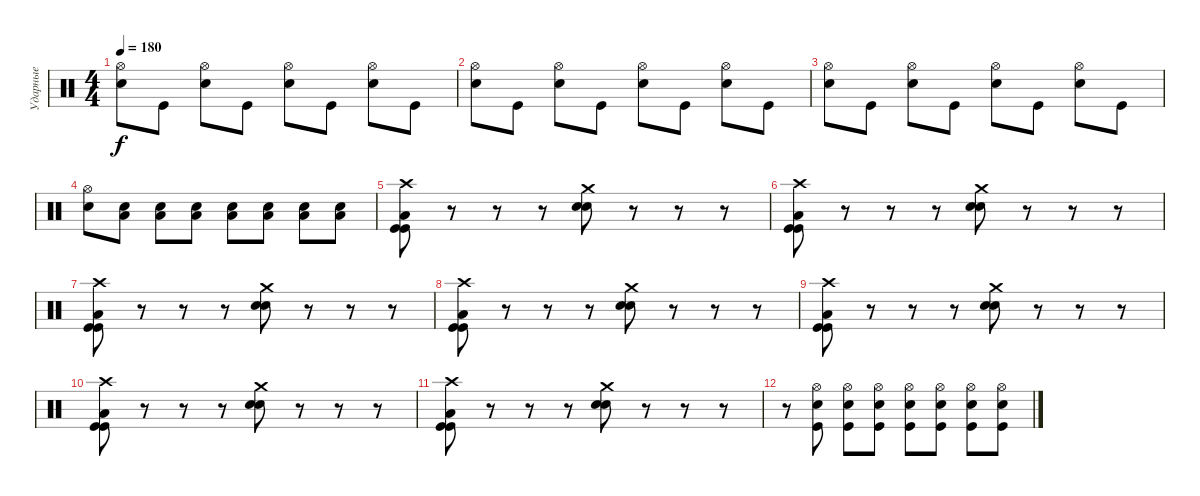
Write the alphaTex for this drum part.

\track ("Ударные" "Ударные") {instrument percussion}
\staff {score}
\articulation defaults
\ts (4 4)
\tempo 180
\clef neutral
\ks c
("Hi-Hat (open)" "Electric Snare (hit)").8{dy f} "Kick (hit)".8 ("Hi-Hat (open)" "Electric Snare (hit)").8 "Kick (hit)".8 ("Hi-Hat (open)" "Electric Snare (hit)").8 "Kick (hit)".8 ("Hi-Hat (open)" "Electric Snare (hit)").8 "Kick (hit)".8 |
("Hi-Hat (open)" "Electric Snare (hit)").8 "Kick (hit)".8 ("Hi-Hat (open)" "Electric Snare (hit)").8 "Kick (hit)".8 ("Hi-Hat (open)" "Electric Snare (hit)").8 "Kick (hit)".8 ("Hi-Hat (open)" "Electric Snare (hit)").8 "Kick (hit)".8 |
("Hi-Hat (open)" "Electric Snare (hit)").8 "Kick (hit)".8 ("Hi-Hat (open)" "Electric Snare (hit)").8 "Kick (hit)".8 ("Hi-Hat (open)" "Electric Snare (hit)").8 "Kick (hit)".8 ("Hi-Hat (open)" "Electric Snare (hit)").8 "Kick (hit)".8 |
("Hi-Hat (open)" "Electric Snare (hit)").8 ("Low Tom (hit)" "Electric Snare (hit)").8 ("Low Tom (hit)" "Electric Snare (hit)").8 ("Low Tom (hit)" "Electric Snare (hit)").8 ("Low Tom (hit)" "Electric Snare (hit)").8 ("Low Tom (hit)" "Electric Snare (hit)").8 ("Low Tom (hit)" "Electric Snare (hit)").8 ("Low Tom (hit)" "Electric Snare (hit)").8 |
("Crash high (hit)" "Kick (hit)" "Kick (hit)" "Low Tom (hit)").8 r.8 r.8 r.8 ("Crash medium (hit)" "Electric Snare (hit)" "Electric Snare (hit)").8 r.8 r.8 r.8 |
("Crash high (hit)" "Kick (hit)" "Kick (hit)" "Low Tom (hit)").8 r.8 r.8 r.8 ("Crash medium (hit)" "Electric Snare (hit)" "Electric Snare (hit)").8 r.8 r.8 r.8 |
("Crash high (hit)" "Kick (hit)" "Kick (hit)" "Low Tom (hit)").8 r.8 r.8 r.8 ("Crash medium (hit)" "Electric Snare (hit)" "Electric Snare (hit)").8 r.8 r.8 r.8 |
("Crash high (hit)" "Kick (hit)" "Kick (hit)" "Low Tom (hit)").8 r.8 r.8 r.8 ("Crash medium (hit)" "Electric Snare (hit)" "Electric Snare (hit)").8 r.8 r.8 r.8 |
("Crash high (hit)" "Kick (hit)" "Kick (hit)" "Low Tom (hit)").8 r.8 r.8 r.8 ("Crash medium (hit)" "Electric Snare (hit)" "Electric Snare (hit)").8 r.8 r.8 r.8 |
("Crash high (hit)" "Kick (hit)" "Kick (hit)" "Low Tom (hit)").8 r.8 r.8 r.8 ("Crash medium (hit)" "Electric Snare (hit)" "Electric Snare (hit)").8 r.8 r.8 r.8 |
("Crash high (hit)" "Kick (hit)" "Kick (hit)" "Low Tom (hit)").8 r.8 r.8 r.8 ("Crash medium (hit)" "Electric Snare (hit)" "Electric Snare (hit)").8 r.8 r.8 r.8 |
r.8 ("Hi-Hat (open)" "Electric Snare (hit)" "Kick (hit)").8 ("Hi-Hat (open)" "Electric Snare (hit)" "Kick (hit)").8 ("Hi-Hat (open)" "Electric Snare (hit)" "Kick (hit)").8 ("Hi-Hat (open)" "Electric Snare (hit)" "Kick (hit)").8 ("Hi-Hat (open)" "Electric Snare (hit)" "Kick (hit)").8 ("Hi-Hat (open)" "Electric Snare (hit)" "Kick (hit)").8 ("Hi-Hat (open)" "Electric Snare (hit)" "Kick (hit)").8
